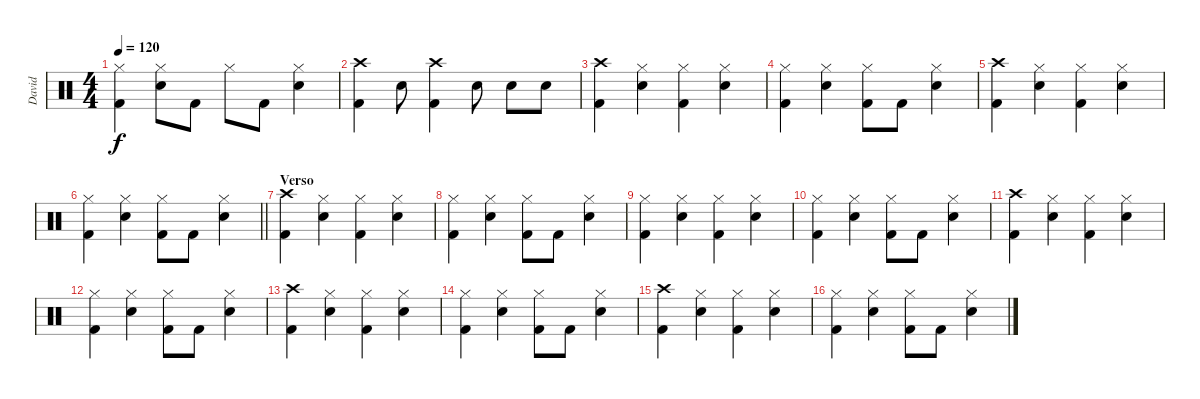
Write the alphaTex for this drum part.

\track ("David" "David") {instrument percussion}
\staff {score}
\articulation defaults
\ts (4 4)
\tempo 120
\clef neutral
\ks c
("Hi-Hat (closed)" "Kick (hit) 2").4{dy f} ("Hi-Hat (closed)" "Snare (hit) 2").8 "Kick (hit) 2".8 "Hi-Hat (closed)".8 "Kick (hit) 2".8 ("Hi-Hat (closed)" "Snare (hit) 2").4 |
("Crash high (hit)" "Kick (hit) 2").4 "Snare (hit) 2".8 ("Crash high (hit)" "Kick (hit) 2").4 "Snare (hit) 2".8 "Snare (hit) 2".8 "Snare (hit) 2".8 |
("Crash high (hit)" "Kick (hit) 2").4 ("Hi-Hat (closed)" "Snare (hit) 2").4 ("Hi-Hat (closed)" "Kick (hit) 2").4 ("Hi-Hat (closed)" "Snare (hit) 2").4 |
("Hi-Hat (closed)" "Kick (hit) 2").4 ("Hi-Hat (closed)" "Snare (hit) 2").4 ("Hi-Hat (closed)" "Kick (hit) 2").8 "Kick (hit) 2".8 ("Hi-Hat (closed)" "Snare (hit) 2").4 |
("Crash high (hit)" "Kick (hit) 2").4 ("Hi-Hat (closed)" "Snare (hit) 2").4 ("Hi-Hat (closed)" "Kick (hit) 2").4 ("Hi-Hat (closed)" "Snare (hit) 2").4 |
\barLineRight lightlight
("Hi-Hat (closed)" "Kick (hit) 2").4 ("Hi-Hat (closed)" "Snare (hit) 2").4 ("Hi-Hat (closed)" "Kick (hit) 2").8 "Kick (hit) 2".8 ("Hi-Hat (closed)" "Snare (hit) 2").4 |
\section ("" "Verso")
("Crash high (hit)" "Kick (hit) 2").4 ("Hi-Hat (closed)" "Snare (hit) 2").4 ("Hi-Hat (closed)" "Kick (hit) 2").4 ("Hi-Hat (closed)" "Snare (hit) 2").4 |
("Hi-Hat (closed)" "Kick (hit) 2").4 ("Hi-Hat (closed)" "Snare (hit) 2").4 ("Hi-Hat (closed)" "Kick (hit) 2").8 "Kick (hit) 2".8 ("Hi-Hat (closed)" "Snare (hit) 2").4 |
("Hi-Hat (closed)" "Kick (hit) 2").4 ("Hi-Hat (closed)" "Snare (hit) 2").4 ("Hi-Hat (closed)" "Kick (hit) 2").4 ("Hi-Hat (closed)" "Snare (hit) 2").4 |
("Hi-Hat (closed)" "Kick (hit) 2").4 ("Hi-Hat (closed)" "Snare (hit) 2").4 ("Hi-Hat (closed)" "Kick (hit) 2").8 "Kick (hit) 2".8 ("Hi-Hat (closed)" "Snare (hit) 2").4 |
("Crash high (hit)" "Kick (hit) 2").4 ("Hi-Hat (closed)" "Snare (hit) 2").4 ("Hi-Hat (closed)" "Kick (hit) 2").4 ("Hi-Hat (closed)" "Snare (hit) 2").4 |
("Hi-Hat (closed)" "Kick (hit) 2").4 ("Hi-Hat (closed)" "Snare (hit) 2").4 ("Hi-Hat (closed)" "Kick (hit) 2").8 "Kick (hit) 2".8 ("Hi-Hat (closed)" "Snare (hit) 2").4 |
("Crash high (hit)" "Kick (hit) 2").4 ("Hi-Hat (closed)" "Snare (hit) 2").4 ("Hi-Hat (closed)" "Kick (hit) 2").4 ("Hi-Hat (closed)" "Snare (hit) 2").4 |
("Hi-Hat (closed)" "Kick (hit) 2").4 ("Hi-Hat (closed)" "Snare (hit) 2").4 ("Hi-Hat (closed)" "Kick (hit) 2").8 "Kick (hit) 2".8 ("Hi-Hat (closed)" "Snare (hit) 2").4 |
("Crash high (hit)" "Kick (hit) 2").4 ("Hi-Hat (closed)" "Snare (hit) 2").4 ("Hi-Hat (closed)" "Kick (hit) 2").4 ("Hi-Hat (closed)" "Snare (hit) 2").4 |
("Hi-Hat (closed)" "Kick (hit) 2").4 ("Hi-Hat (closed)" "Snare (hit) 2").4 ("Hi-Hat (closed)" "Kick (hit) 2").8 "Kick (hit) 2".8 ("Hi-Hat (closed)" "Snare (hit) 2").4
